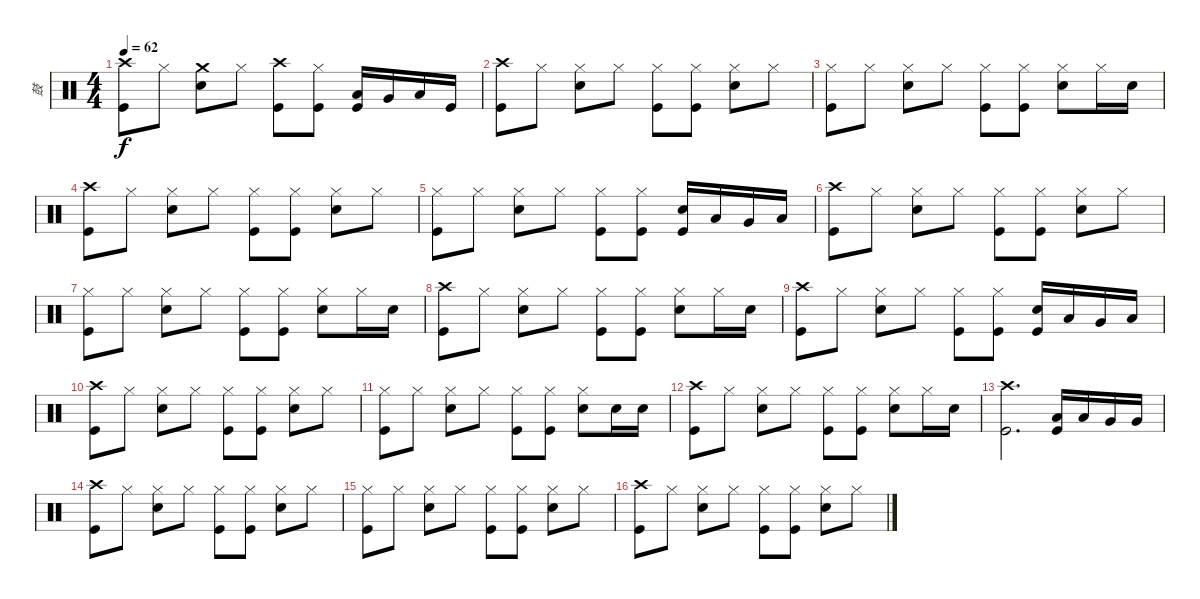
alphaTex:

\track ("鼓" "鼓") {instrument percussion}
\staff {score}
\articulation defaults
\ts (4 4)
\tempo 62
\clef neutral
\ks c
("Kick (hit)" "Crash high (hit)").8{dy f} "Hi-Hat (closed)".8 ("Snare (hit) 2" "Crash medium (hit)").8 "Hi-Hat (closed)".8 ("Kick (hit)" "Crash high (hit)").8 ("Kick (hit)" "Hi-Hat (closed)").8 ("Kick (hit)" "Low Tom (hit)").16 "Very Low Tom (hit)".16 "Low Floor Tom (hit)".16 "Kick (hit)".16 |
("Kick (hit)" "Crash high (hit)").8 "Hi-Hat (closed)".8 ("Snare (hit) 2" "Hi-Hat (closed)").8 "Hi-Hat (closed)".8 ("Kick (hit)" "Hi-Hat (closed)").8 ("Kick (hit)" "Hi-Hat (closed)").8 ("Snare (hit) 2" "Hi-Hat (closed)").8 "Hi-Hat (closed)".8 |
("Kick (hit)" "Hi-Hat (closed)").8 "Hi-Hat (closed)".8 ("Snare (hit) 2" "Hi-Hat (closed)").8 "Hi-Hat (closed)".8 ("Kick (hit)" "Hi-Hat (closed)").8 ("Kick (hit)" "Hi-Hat (closed)").8 ("Snare (hit) 2" "Hi-Hat (closed)").8 "Hi-Hat (closed)".16 "Snare (hit) 2".16 |
("Kick (hit)" "Crash high (hit)").8 "Hi-Hat (closed)".8 ("Snare (hit) 2" "Hi-Hat (closed)").8 "Hi-Hat (closed)".8 ("Kick (hit)" "Hi-Hat (closed)").8 ("Kick (hit)" "Hi-Hat (closed)").8 ("Snare (hit) 2" "Hi-Hat (closed)").8 "Hi-Hat (closed)".8 |
("Kick (hit)" "Hi-Hat (closed)").8 "Hi-Hat (closed)".8 ("Snare (hit) 2" "Hi-Hat (closed)").8 "Hi-Hat (closed)".8 ("Kick (hit)" "Hi-Hat (closed)").8 ("Kick (hit)" "Hi-Hat (closed)").8 ("Snare (hit) 2" "Kick (hit)").16 "Low Tom (hit)".16 "Very Low Tom (hit)".16 "Low Floor Tom (hit)".16 |
("Kick (hit)" "Crash high (hit)").8 "Hi-Hat (closed)".8 ("Snare (hit) 2" "Hi-Hat (closed)").8 "Hi-Hat (closed)".8 ("Kick (hit)" "Hi-Hat (closed)").8 ("Kick (hit)" "Hi-Hat (closed)").8 ("Snare (hit) 2" "Hi-Hat (closed)").8 "Hi-Hat (closed)".8 |
("Kick (hit)" "Hi-Hat (closed)").8 "Hi-Hat (closed)".8 ("Snare (hit) 2" "Hi-Hat (closed)").8 "Hi-Hat (closed)".8 ("Kick (hit)" "Hi-Hat (closed)").8 ("Kick (hit)" "Hi-Hat (closed)").8 ("Snare (hit) 2" "Hi-Hat (closed)").8 "Hi-Hat (closed)".16 "Snare (hit) 2".16 |
("Kick (hit)" "Crash high (hit)").8 "Hi-Hat (closed)".8 ("Snare (hit) 2" "Hi-Hat (closed)").8 "Hi-Hat (closed)".8 ("Kick (hit)" "Hi-Hat (closed)").8 ("Kick (hit)" "Hi-Hat (closed)").8 ("Snare (hit) 2" "Hi-Hat (closed)").8 "Hi-Hat (closed)".16 "Snare (hit) 2".16 |
("Kick (hit)" "Crash high (hit)").8 "Hi-Hat (closed)".8 ("Snare (hit) 2" "Hi-Hat (closed)").8 "Hi-Hat (closed)".8 ("Kick (hit)" "Hi-Hat (closed)").8 ("Kick (hit)" "Hi-Hat (closed)").8 ("Snare (hit) 2" "Kick (hit)").16 "Low Tom (hit)".16 "Very Low Tom (hit)".16 "Low Floor Tom (hit)".16 |
("Kick (hit)" "Crash high (hit)").8 "Hi-Hat (closed)".8 ("Snare (hit) 2" "Hi-Hat (closed)").8 "Hi-Hat (closed)".8 ("Kick (hit)" "Hi-Hat (closed)").8 ("Kick (hit)" "Hi-Hat (closed)").8 ("Snare (hit) 2" "Hi-Hat (closed)").8 "Hi-Hat (closed)".8 |
("Kick (hit)" "Hi-Hat (closed)").8 "Hi-Hat (closed)".8 ("Snare (hit) 2" "Hi-Hat (closed)").8 "Hi-Hat (closed)".8 ("Kick (hit)" "Hi-Hat (closed)").8 ("Kick (hit)" "Hi-Hat (closed)").8 ("Snare (hit) 2" "Hi-Hat (closed)").8 "Snare (hit) 2".16 "Snare (hit) 2".16 |
("Kick (hit)" "Crash high (hit)").8 "Hi-Hat (closed)".8 ("Snare (hit) 2" "Hi-Hat (closed)").8 "Hi-Hat (closed)".8 ("Kick (hit)" "Hi-Hat (closed)").8 ("Kick (hit)" "Hi-Hat (closed)").8 ("Snare (hit) 2" "Hi-Hat (closed)").8 "Hi-Hat (closed)".16 "Snare (hit) 2".16 |
("Kick (hit)" "Crash high (hit)").2{d} ("Low Tom (hit)" "Kick (hit)").16 "Low Tom (hit)".16 "Very Low Tom (hit)".16 "Very Low Tom (hit)".16 |
("Kick (hit)" "Crash high (hit)").8 "Hi-Hat (closed)".8 ("Snare (hit) 2" "Hi-Hat (closed)").8 "Hi-Hat (closed)".8 ("Kick (hit)" "Hi-Hat (closed)").8 ("Kick (hit)" "Hi-Hat (closed)").8 ("Snare (hit) 2" "Hi-Hat (closed)").8 "Hi-Hat (closed)".8 |
("Kick (hit)" "Hi-Hat (closed)").8 "Hi-Hat (closed)".8 ("Snare (hit) 2" "Hi-Hat (closed)").8 "Hi-Hat (closed)".8 ("Kick (hit)" "Hi-Hat (closed)").8 ("Kick (hit)" "Hi-Hat (closed)").8 ("Snare (hit) 2" "Hi-Hat (closed)").8 "Hi-Hat (closed)".8 |
("Kick (hit)" "Crash high (hit)").8 "Hi-Hat (closed)".8 ("Snare (hit) 2" "Hi-Hat (closed)").8 "Hi-Hat (closed)".8 ("Kick (hit)" "Hi-Hat (closed)").8 ("Kick (hit)" "Hi-Hat (closed)").8 ("Snare (hit) 2" "Hi-Hat (closed)").8 "Hi-Hat (closed)".8
